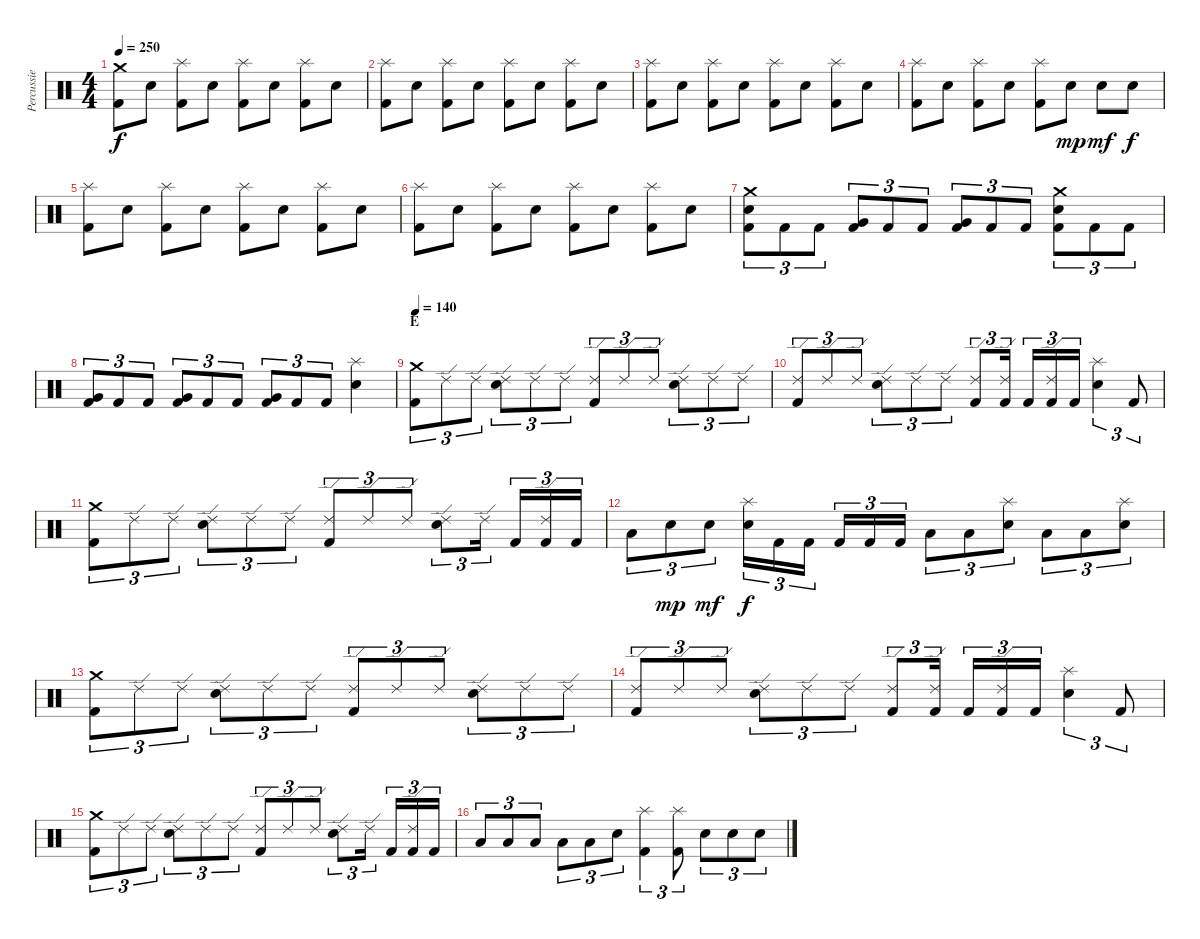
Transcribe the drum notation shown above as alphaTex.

\track ("Percussie" "Percussie") {instrument percussion}
\staff {score}
\articulation defaults
\ts (4 4)
\tempo 250
\clef neutral
\ks c
("Crash medium (hit)" "Kick (hit) 2").8{dy f} "Electric Snare (hit)".8 ("Splash (hit)" "Kick (hit) 2").8 "Electric Snare (hit)".8 ("Splash (hit)" "Kick (hit) 2").8 "Electric Snare (hit)".8 ("Splash (hit)" "Kick (hit) 2").8 "Electric Snare (hit)".8 |
("Splash (hit)" "Kick (hit) 2").8 "Electric Snare (hit)".8 ("Splash (hit)" "Kick (hit) 2").8 "Electric Snare (hit)".8 ("Splash (hit)" "Kick (hit) 2").8 "Electric Snare (hit)".8 ("Splash (hit)" "Kick (hit) 2").8 "Electric Snare (hit)".8 |
("Splash (hit)" "Kick (hit) 2").8 "Electric Snare (hit)".8 ("Splash (hit)" "Kick (hit) 2").8 "Electric Snare (hit)".8 ("Splash (hit)" "Kick (hit) 2").8 "Electric Snare (hit)".8 ("Splash (hit)" "Kick (hit) 2").8 "Electric Snare (hit)".8 |
("Splash (hit)" "Kick (hit) 2").8 "Electric Snare (hit)".8 ("Splash (hit)" "Kick (hit) 2").8 "Electric Snare (hit)".8 ("Splash (hit)" "Kick (hit) 2").8 "Electric Snare (hit)".8{dy mp} "Electric Snare (hit)".8{dy mf} "Electric Snare (hit)".8{dy f} |
("Splash (hit)" "Kick (hit) 2").8 "Electric Snare (hit)".8 ("Splash (hit)" "Kick (hit) 2").8 "Electric Snare (hit)".8 ("Splash (hit)" "Kick (hit) 2").8 "Electric Snare (hit)".8 ("Splash (hit)" "Kick (hit) 2").8 "Electric Snare (hit)".8 |
("Splash (hit)" "Kick (hit) 2").8 "Electric Snare (hit)".8 ("Splash (hit)" "Kick (hit) 2").8 "Electric Snare (hit)".8 ("Splash (hit)" "Kick (hit) 2").8 "Electric Snare (hit)".8 ("Splash (hit)" "Kick (hit) 2").8 "Electric Snare (hit)".8 |
("Crash medium (hit)" "Electric Snare (hit)" "Kick (hit) 2").8{tu (3 2)} "Kick (hit) 2".8{tu (3 2)} "Kick (hit) 2".8{tu (3 2)} ("Very Low Tom (hit)" "Kick (hit) 2").8{tu (3 2)} "Kick (hit) 2".8{tu (3 2)} "Kick (hit) 2".8{tu (3 2)} ("Very Low Tom (hit)" "Kick (hit) 2").8{tu (3 2)} "Kick (hit) 2".8{tu (3 2)} "Kick (hit) 2".8{tu (3 2)} ("Crash medium (hit)" "Electric Snare (hit)" "Kick (hit) 2").8{tu (3 2)} "Kick (hit) 2".8{tu (3 2)} "Kick (hit) 2".8{tu (3 2)} |
("Very Low Tom (hit)" "Kick (hit) 2").8{tu (3 2)} "Kick (hit) 2".8{tu (3 2)} "Kick (hit) 2".8{tu (3 2)} ("Very Low Tom (hit)" "Kick (hit) 2").8{tu (3 2)} "Kick (hit) 2".8{tu (3 2)} "Kick (hit) 2".8{tu (3 2)} ("Very Low Tom (hit)" "Kick (hit) 2").8{tu (3 2)} "Kick (hit) 2".8{tu (3 2)} "Kick (hit) 2".8{tu (3 2)} ("Splash (hit)" "Electric Snare (hit)").4 |
\section ("" "E")
\tempo 140
("Crash medium (hit)" "Kick (hit) 2").8{tu (3 2)} "Ride (edge) 2".8{tu (3 2)} "Ride (edge) 2".8{tu (3 2)} ("Ride (edge) 2" "Electric Snare (hit)").8{tu (3 2)} "Ride (edge) 2".8{tu (3 2)} "Ride (edge) 2".8{tu (3 2)} ("Ride (edge) 2" "Kick (hit) 2").8{tu (3 2)} "Ride (edge) 2".8{tu (3 2)} "Ride (edge) 2".8{tu (3 2)} ("Ride (edge) 2" "Electric Snare (hit)").8{tu (3 2)} "Ride (edge) 2".8{tu (3 2)} "Ride (edge) 2".8{tu (3 2)} |
("Ride (edge) 2" "Kick (hit) 2").8{tu (3 2)} "Ride (edge) 2".8{tu (3 2)} "Ride (edge) 2".8{tu (3 2)} ("Ride (edge) 2" "Electric Snare (hit)").8{tu (3 2)} "Ride (edge) 2".8{tu (3 2)} "Ride (edge) 2".8{tu (3 2)} ("Ride (edge) 2" "Kick (hit) 2").8{tu (3 2)} ("Ride (edge) 2" "Kick (hit) 2").16{tu (3 2)} "Kick (hit) 2".16{tu (3 2)} ("Ride (edge) 2" "Kick (hit) 2").16{tu (3 2)} "Kick (hit) 2".16{tu (3 2)} ("Splash (hit)" "Electric Snare (hit)").4{tu (3 2)} "Kick (hit) 2".8{tu (3 2)} |
("Crash medium (hit)" "Kick (hit) 2").8{tu (3 2)} "Ride (edge) 2".8{tu (3 2)} "Ride (edge) 2".8{tu (3 2)} ("Ride (edge) 2" "Electric Snare (hit)").8{tu (3 2)} "Ride (edge) 2".8{tu (3 2)} "Ride (edge) 2".8{tu (3 2)} ("Ride (edge) 2" "Kick (hit) 2").8{tu (3 2)} "Ride (edge) 2".8{tu (3 2)} "Ride (edge) 2".8{tu (3 2)} ("Ride (edge) 2" "Electric Snare (hit)").8{tu (3 2)} "Ride (edge) 2".16{tu (3 2)} "Kick (hit) 2".16{tu (3 2)} ("Ride (edge) 2" "Kick (hit) 2").16{tu (3 2)} "Kick (hit) 2".16{tu (3 2)} |
"Low Tom (hit)".8{tu (3 2)} "Electric Snare (hit)".8{tu (3 2) dy mp} "Electric Snare (hit)".8{tu (3 2) dy mf} ("Splash (hit)" "Electric Snare (hit)").16{tu (3 2) dy f} "Kick (hit) 2".16{tu (3 2)} "Kick (hit) 2".16{tu (3 2)} "Kick (hit) 2".16{tu (3 2)} "Kick (hit) 2".16{tu (3 2)} "Kick (hit) 2".16{tu (3 2)} "Low Tom (hit)".8{tu (3 2)} "Low Tom (hit)".8{tu (3 2)} ("Splash (hit)" "Electric Snare (hit)").8{tu (3 2)} "Low Tom (hit)".8{tu (3 2)} "Low Tom (hit)".8{tu (3 2)} ("Splash (hit)" "Electric Snare (hit)").8{tu (3 2)} |
("Crash medium (hit)" "Kick (hit) 2").8{tu (3 2)} "Ride (edge) 2".8{tu (3 2)} "Ride (edge) 2".8{tu (3 2)} ("Ride (edge) 2" "Electric Snare (hit)").8{tu (3 2)} "Ride (edge) 2".8{tu (3 2)} "Ride (edge) 2".8{tu (3 2)} ("Ride (edge) 2" "Kick (hit) 2").8{tu (3 2)} "Ride (edge) 2".8{tu (3 2)} "Ride (edge) 2".8{tu (3 2)} ("Ride (edge) 2" "Electric Snare (hit)").8{tu (3 2)} "Ride (edge) 2".8{tu (3 2)} "Ride (edge) 2".8{tu (3 2)} |
("Ride (edge) 2" "Kick (hit) 2").8{tu (3 2)} "Ride (edge) 2".8{tu (3 2)} "Ride (edge) 2".8{tu (3 2)} ("Ride (edge) 2" "Electric Snare (hit)").8{tu (3 2)} "Ride (edge) 2".8{tu (3 2)} "Ride (edge) 2".8{tu (3 2)} ("Ride (edge) 2" "Kick (hit) 2").8{tu (3 2)} ("Ride (edge) 2" "Kick (hit) 2").16{tu (3 2)} "Kick (hit) 2".16{tu (3 2)} ("Ride (edge) 2" "Kick (hit) 2").16{tu (3 2)} "Kick (hit) 2".16{tu (3 2)} ("Splash (hit)" "Electric Snare (hit)").4{tu (3 2)} "Kick (hit) 2".8{tu (3 2)} |
("Crash medium (hit)" "Kick (hit) 2").8{tu (3 2)} "Ride (edge) 2".8{tu (3 2)} "Ride (edge) 2".8{tu (3 2)} ("Ride (edge) 2" "Electric Snare (hit)").8{tu (3 2)} "Ride (edge) 2".8{tu (3 2)} "Ride (edge) 2".8{tu (3 2)} ("Ride (edge) 2" "Kick (hit) 2").8{tu (3 2)} "Ride (edge) 2".8{tu (3 2)} "Ride (edge) 2".8{tu (3 2)} ("Ride (edge) 2" "Electric Snare (hit)").8{tu (3 2)} "Ride (edge) 2".16{tu (3 2)} "Kick (hit) 2".16{tu (3 2)} ("Ride (edge) 2" "Kick (hit) 2").16{tu (3 2)} "Kick (hit) 2".16{tu (3 2)} |
"Low Tom (hit)".8{tu (3 2)} "Low Tom (hit)".8{tu (3 2)} "Low Tom (hit)".8{tu (3 2)} "Low Tom (hit)".8{tu (3 2)} "Low Tom (hit)".8{tu (3 2)} "Electric Snare (hit)".8{tu (3 2)} ("Splash (hit)" "Kick (hit) 2").4{tu (3 2)} ("Splash (hit)" "Kick (hit) 2").8{tu (3 2)} "Electric Snare (hit)".8{tu (3 2)} "Electric Snare (hit)".8{tu (3 2)} "Electric Snare (hit)".8{tu (3 2)}
